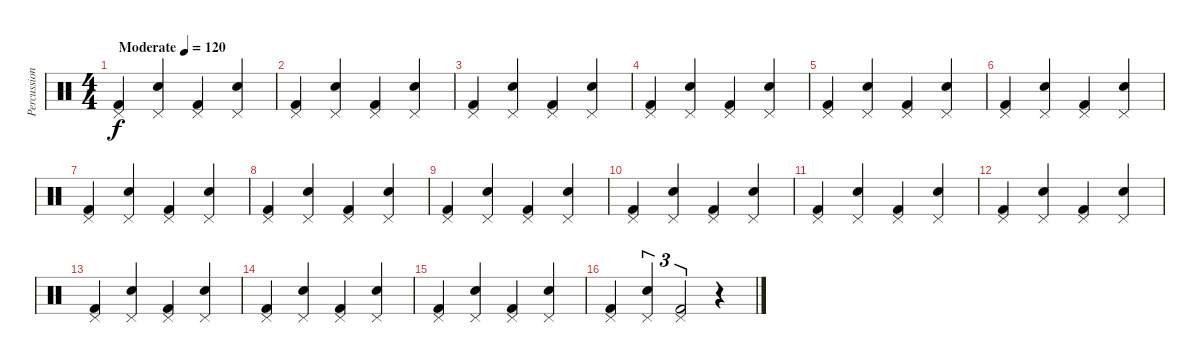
\track ("Percussion" "Percussion") {instrument percussion}
\staff {score}
\articulation defaults
\ts (4 4)
\tempo (120 "Moderate")
\clef neutral
\ks c
("Pedal Hi-Hat (hit)" "Kick (hit) 2").4{dy f} ("Pedal Hi-Hat (hit)" "Snare (hit) 2").4 ("Pedal Hi-Hat (hit)" "Kick (hit) 2").4 ("Pedal Hi-Hat (hit)" "Snare (hit) 2").4 |
("Pedal Hi-Hat (hit)" "Kick (hit) 2").4 ("Pedal Hi-Hat (hit)" "Snare (hit) 2").4 ("Pedal Hi-Hat (hit)" "Kick (hit) 2").4 ("Pedal Hi-Hat (hit)" "Snare (hit) 2").4 |
("Pedal Hi-Hat (hit)" "Kick (hit) 2").4 ("Pedal Hi-Hat (hit)" "Snare (hit) 2").4 ("Pedal Hi-Hat (hit)" "Kick (hit) 2").4 ("Pedal Hi-Hat (hit)" "Snare (hit) 2").4 |
("Pedal Hi-Hat (hit)" "Kick (hit) 2").4 ("Pedal Hi-Hat (hit)" "Snare (hit) 2").4 ("Pedal Hi-Hat (hit)" "Kick (hit) 2").4 ("Pedal Hi-Hat (hit)" "Snare (hit) 2").4 |
("Pedal Hi-Hat (hit)" "Kick (hit) 2").4 ("Pedal Hi-Hat (hit)" "Snare (hit) 2").4 ("Pedal Hi-Hat (hit)" "Kick (hit) 2").4 ("Pedal Hi-Hat (hit)" "Snare (hit) 2").4 |
("Pedal Hi-Hat (hit)" "Kick (hit) 2").4 ("Pedal Hi-Hat (hit)" "Snare (hit) 2").4 ("Pedal Hi-Hat (hit)" "Kick (hit) 2").4 ("Pedal Hi-Hat (hit)" "Snare (hit) 2").4 |
("Pedal Hi-Hat (hit)" "Kick (hit) 2").4 ("Pedal Hi-Hat (hit)" "Snare (hit) 2").4 ("Pedal Hi-Hat (hit)" "Kick (hit) 2").4 ("Pedal Hi-Hat (hit)" "Snare (hit) 2").4 |
("Pedal Hi-Hat (hit)" "Kick (hit) 2").4 ("Pedal Hi-Hat (hit)" "Snare (hit) 2").4 ("Pedal Hi-Hat (hit)" "Kick (hit) 2").4 ("Pedal Hi-Hat (hit)" "Snare (hit) 2").4 |
("Pedal Hi-Hat (hit)" "Kick (hit) 2").4 ("Pedal Hi-Hat (hit)" "Snare (hit) 2").4 ("Pedal Hi-Hat (hit)" "Kick (hit) 2").4 ("Pedal Hi-Hat (hit)" "Snare (hit) 2").4 |
("Pedal Hi-Hat (hit)" "Kick (hit) 2").4 ("Pedal Hi-Hat (hit)" "Snare (hit) 2").4 ("Pedal Hi-Hat (hit)" "Kick (hit) 2").4 ("Pedal Hi-Hat (hit)" "Snare (hit) 2").4 |
("Pedal Hi-Hat (hit)" "Kick (hit) 2").4 ("Pedal Hi-Hat (hit)" "Snare (hit) 2").4 ("Pedal Hi-Hat (hit)" "Kick (hit) 2").4 ("Pedal Hi-Hat (hit)" "Snare (hit) 2").4 |
("Pedal Hi-Hat (hit)" "Kick (hit) 2").4 ("Pedal Hi-Hat (hit)" "Snare (hit) 2").4 ("Pedal Hi-Hat (hit)" "Kick (hit) 2").4 ("Pedal Hi-Hat (hit)" "Snare (hit) 2").4 |
("Pedal Hi-Hat (hit)" "Kick (hit) 2").4 ("Pedal Hi-Hat (hit)" "Snare (hit) 2").4 ("Pedal Hi-Hat (hit)" "Kick (hit) 2").4 ("Pedal Hi-Hat (hit)" "Snare (hit) 2").4 |
("Pedal Hi-Hat (hit)" "Kick (hit) 2").4 ("Pedal Hi-Hat (hit)" "Snare (hit) 2").4 ("Pedal Hi-Hat (hit)" "Kick (hit) 2").4 ("Pedal Hi-Hat (hit)" "Snare (hit) 2").4 |
("Pedal Hi-Hat (hit)" "Kick (hit) 2").4 ("Pedal Hi-Hat (hit)" "Snare (hit) 2").4 ("Pedal Hi-Hat (hit)" "Kick (hit) 2").4 ("Pedal Hi-Hat (hit)" "Snare (hit) 2").4 |
("Pedal Hi-Hat (hit)" "Kick (hit) 2").4 ("Pedal Hi-Hat (hit)" "Snare (hit) 2").4{tu (3 2)} ("Pedal Hi-Hat (hit)" "Kick (hit) 2").2{tu (3 2)} r.4
